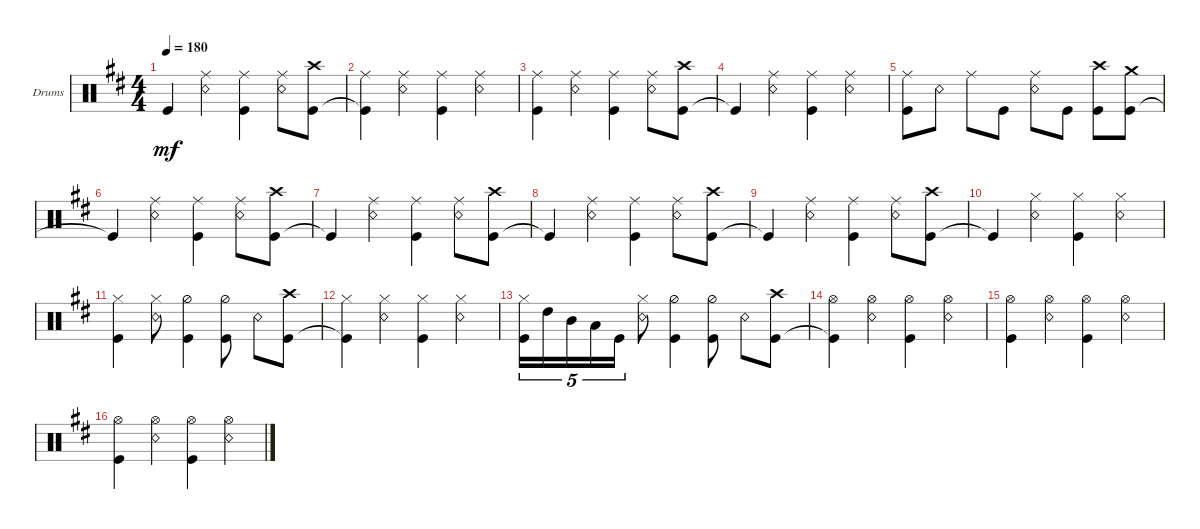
\defaultSystemsLayout 4
\bracketExtendMode groupsimilarinstruments
\firstSystemTrackNameOrientation horizontal
\otherSystemsTrackNameOrientation horizontal
\track ("Drumkit" "Drums") {instrument percussion}
\staff {score}
\articulation defaults
\ts (4 4)
\tempo 180
\clef neutral
\ks bminor "Kick (hit)"{t}.4{dy mf}
("Ride (middle)" "Snare (rim shot)").4 ("Kick (hit)" "Ride (middle)").4 ("Ride (middle)" "Snare (rim shot)").8 ("Kick (hit)" "Crash high (hit)").8 |
("Kick (hit)"{t} "Ride (middle)").4 ("Ride (middle)" "Snare (rim shot)").4 ("Kick (hit)" "Ride (middle)").4 ("Ride (middle)" "Snare (rim shot)").4 |
("Kick (hit)" "Ride (middle)").4 ("Ride (middle)" "Snare (rim shot)").4 ("Ride (middle)" "Kick (hit)").4 ("Ride (middle)" "Snare (rim shot)").8 ("Kick (hit)" "Crash high (hit)").8 |
"Kick (hit)"{t}.4 ("Ride (middle)" "Snare (rim shot)").4 ("Kick (hit)" "Ride (middle)").4 ("Ride (middle)" "Snare (rim shot)").4 |
("Ride (middle)" "Kick (hit)").8 "Snare (rim shot)".8 "Ride (middle)".8 "Kick (hit)".8 ("Ride (middle)" "Snare (rim shot)").8 "Kick (hit)".8 ("Kick (hit)" "Crash high (hit)").8 ("Kick (hit)" "Crash medium (hit)").8 |
"Kick (hit)"{t}.4 ("Ride (middle)" "Snare (rim shot)").4 ("Ride (middle)" "Kick (hit)").4 ("Ride (middle)" "Snare (rim shot)").8 ("Kick (hit)" "Crash high (hit)").8 |
"Kick (hit)"{t}.4 ("Ride (middle)" "Snare (rim shot)").4 ("Kick (hit)" "Ride (middle)").4 ("Ride (middle)" "Snare (rim shot)").8 ("Kick (hit)" "Crash high (hit)").8 |
"Kick (hit)"{t}.4 ("Ride (middle)" "Snare (rim shot)").4 ("Kick (hit)" "Ride (middle)").4 ("Ride (middle)" "Snare (rim shot)").8 ("Kick (hit)" "Crash high (hit)").8 |
"Kick (hit)"{t}.4 ("Ride (middle)" "Snare (rim shot)").4 ("Kick (hit)" "Ride (middle)").4 ("Ride (middle)" "Snare (rim shot)").8 ("Kick (hit)" "Crash high (hit)").8 |
"Kick (hit)"{t}.4 ("Hi-Hat (closed)" "Snare (rim shot)").4 ("Hi-Hat (closed)" "Kick (hit)").4 ("Hi-Hat (closed)" "Snare (rim shot)").4 |
("Kick (hit)" "Hi-Hat (closed)").4 ("Hi-Hat (closed)" "Snare (rim shot)").8 ("Kick (hit)" "Hi-Hat (half)").4 ("Hi-Hat (half)" "Kick (hit)").8 "Snare (rim shot)".8 ("Kick (hit)" "Crash high (hit)").8 |
("Kick (hit)"{t} "Hi-Hat (closed)").4 ("Hi-Hat (closed)" "Snare (rim shot)").4 ("Hi-Hat (closed)" "Kick (hit)").4 ("Hi-Hat (closed)" "Snare (rim shot)").4 |
("Kick (hit)" "Hi-Hat (closed)").16{tu (5 4)} "High Tom (hit)".16{tu (5 4)} "Mid Tom (hit)".16{tu (5 4)} "Low Tom (hit)".16{tu (5 4)} "Kick (hit)".16{tu (5 4)} ("Hi-Hat (closed)" "Snare (rim shot)").8 ("Kick (hit)" "Hi-Hat (half)").4 ("Hi-Hat (half)" "Kick (hit)").8 "Snare (rim shot)".8 ("Kick (hit)" "Crash high (hit)").8 |
("Kick (hit)"{t} "Hi-Hat (open)").4 ("Hi-Hat (open)" "Snare (rim shot)").4 ("Hi-Hat (open)" "Kick (hit)").4 ("Hi-Hat (open)" "Snare (rim shot)").4 |
("Kick (hit)" "Hi-Hat (open)").4 ("Hi-Hat (open)" "Snare (rim shot)").4 ("Hi-Hat (open)" "Kick (hit)").4 ("Hi-Hat (open)" "Snare (rim shot)").4 |
("Kick (hit)" "Hi-Hat (open)").4 ("Hi-Hat (open)" "Snare (rim shot)").4 ("Hi-Hat (open)" "Kick (hit)").4 ("Hi-Hat (open)" "Snare (rim shot)").4
